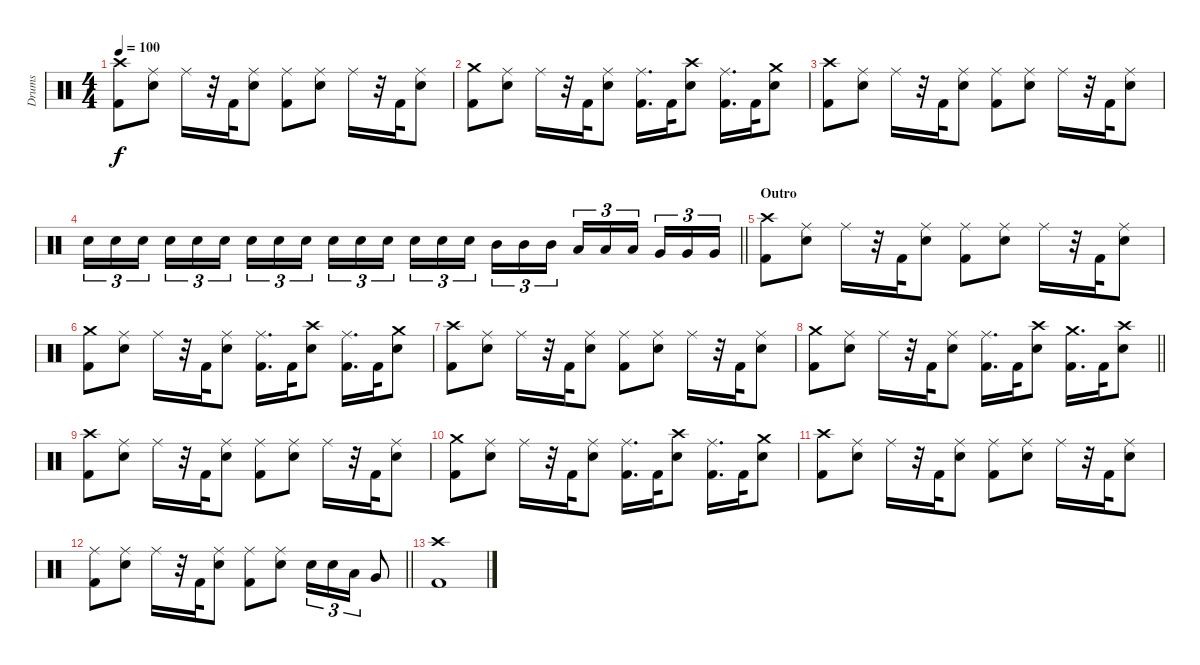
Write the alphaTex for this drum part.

\track ("Drums" "Drums") {instrument percussion}
\staff {score}
\articulation defaults
\ts (4 4)
\tempo 100
\clef neutral
\ks c
("Crash high (hit)" "Kick (hit) 2").8{dy f} ("Ride (middle)" "Snare (hit) 2").8 "Ride (middle)".16 r.32 "Kick (hit) 2".32 ("Ride (middle)" "Snare (hit) 2").8 ("Ride (middle)" "Kick (hit) 2").8 ("Ride (middle)" "Snare (hit) 2").8 "Ride (middle)".16 r.32 "Kick (hit) 2".32 ("Ride (middle)" "Snare (hit) 2").8 |
("Crash medium (hit)" "Kick (hit) 2").8 ("Ride (middle)" "Snare (hit) 2").8 "Ride (middle)".16 r.32 "Kick (hit) 2".32 ("Ride (middle)" "Snare (hit) 2").8 ("Ride (middle)" "Kick (hit) 2").16{d} "Kick (hit) 2".32 ("Crash high (hit)" "Snare (hit) 2").8 ("Ride (middle)" "Kick (hit) 2").16{d} "Kick (hit) 2".32 ("Crash medium (hit)" "Snare (hit) 2").8 |
("Crash high (hit)" "Kick (hit) 2").8 ("Ride (middle)" "Snare (hit) 2").8 "Ride (middle)".16 r.32 "Kick (hit) 2".32 ("Ride (middle)" "Snare (hit) 2").8 ("Ride (middle)" "Kick (hit) 2").8 ("Ride (middle)" "Snare (hit) 2").8 "Ride (middle)".16 r.32 "Kick (hit) 2".32 ("Ride (middle)" "Snare (hit) 2").8 |
\barLineRight lightlight "Snare (hit) 2".16{tu (3 2)} "Snare (hit) 2".16{tu (3 2)} "Snare (hit) 2".16{tu (3 2) beam splitsecondary} "Snare (hit) 2".16{tu (3 2)} "Snare (hit) 2".16{tu (3 2)} "Snare (hit) 2".16{tu (3 2)} "Snare (hit) 2".16{tu (3 2)} "Snare (hit) 2".16{tu (3 2)} "Snare (hit) 2".16{tu (3 2) beam splitsecondary} "Snare (hit) 2".16{tu (3 2)} "Snare (hit) 2".16{tu (3 2)} "Snare (hit) 2".16{tu (3 2)} "Snare (hit) 2".16{tu (3 2)} "Snare (hit) 2".16{tu (3 2)} "Snare (hit) 2".16{tu (3 2) beam splitsecondary} "Mid Tom (hit)".16{tu (3 2)} "Mid Tom (hit)".16{tu (3 2)} "Mid Tom (hit)".16{tu (3 2)} "Low Tom (hit)".16{tu (3 2)} "Low Tom (hit)".16{tu (3 2)} "Low Tom (hit)".16{tu (3 2) beam splitsecondary} "Very Low Tom (hit)".16{tu (3 2)} "Very Low Tom (hit)".16{tu (3 2)} "Very Low Tom (hit)".16{tu (3 2)}
|
\section ("" "Outro")
("Crash high (hit)" "Kick (hit) 2").8 ("Ride (middle)" "Snare (hit) 2").8 "Ride (middle)".16 r.32 "Kick (hit) 2".32 ("Ride (middle)" "Snare (hit) 2").8 ("Ride (middle)" "Kick (hit) 2").8 ("Ride (middle)" "Snare (hit) 2").8 "Ride (middle)".16 r.32 "Kick (hit) 2".32 ("Ride (middle)" "Snare (hit) 2").8 |
("Crash medium (hit)" "Kick (hit) 2").8 ("Ride (middle)" "Snare (hit) 2").8 "Ride (middle)".16 r.32 "Kick (hit) 2".32 ("Ride (middle)" "Snare (hit) 2").8 ("Ride (middle)" "Kick (hit) 2").16{d} "Kick (hit) 2".32 ("Crash high (hit)" "Snare (hit) 2").8 ("Ride (middle)" "Kick (hit) 2").16{d} "Kick (hit) 2".32 ("Crash medium (hit)" "Snare (hit) 2").8 |
("Crash high (hit)" "Kick (hit) 2").8 ("Ride (middle)" "Snare (hit) 2").8 "Ride (middle)".16 r.32 "Kick (hit) 2".32 ("Ride (middle)" "Snare (hit) 2").8 ("Ride (middle)" "Kick (hit) 2").8 ("Ride (middle)" "Snare (hit) 2").8 "Ride (middle)".16 r.32 "Kick (hit) 2".32 ("Ride (middle)" "Snare (hit) 2").8 |
\barLineRight lightlight
("Crash medium (hit)" "Kick (hit) 2").8 ("Ride (middle)" "Snare (hit) 2").8 "Ride (middle)".16 r.32 "Kick (hit) 2".32 ("Ride (middle)" "Snare (hit) 2").8 ("Ride (middle)" "Kick (hit) 2").16{d} "Kick (hit) 2".32 ("Crash high (hit)" "Snare (hit) 2").8 ("Crash medium (hit)" "Kick (hit) 2").16{d} "Kick (hit) 2".32 ("Crash high (hit)" "Snare (hit) 2").8 |
("Crash high (hit)" "Kick (hit) 2").8 ("Ride (middle)" "Snare (hit) 2").8 "Ride (middle)".16 r.32 "Kick (hit) 2".32 ("Ride (middle)" "Snare (hit) 2").8 ("Ride (middle)" "Kick (hit) 2").8 ("Ride (middle)" "Snare (hit) 2").8 "Ride (middle)".16 r.32 "Kick (hit) 2".32 ("Ride (middle)" "Snare (hit) 2").8 |
("Crash medium (hit)" "Kick (hit) 2").8 ("Ride (middle)" "Snare (hit) 2").8 "Ride (middle)".16 r.32 "Kick (hit) 2".32 ("Ride (middle)" "Snare (hit) 2").8 ("Ride (middle)" "Kick (hit) 2").16{d} "Kick (hit) 2".32 ("Crash high (hit)" "Snare (hit) 2").8 ("Ride (middle)" "Kick (hit) 2").16{d} "Kick (hit) 2".32 ("Crash medium (hit)" "Snare (hit) 2").8 |
("Crash high (hit)" "Kick (hit) 2").8 ("Ride (middle)" "Snare (hit) 2").8 "Ride (middle)".16 r.32 "Kick (hit) 2".32 ("Ride (middle)" "Snare (hit) 2").8 ("Ride (middle)" "Kick (hit) 2").8 ("Ride (middle)" "Snare (hit) 2").8 "Ride (middle)".16 r.32 "Kick (hit) 2".32 ("Ride (middle)" "Snare (hit) 2").8 |
\barLineRight lightlight
("Ride (middle)" "Kick (hit) 2").8 ("Ride (middle)" "Snare (hit) 2").8 "Ride (middle)".16 r.32 "Kick (hit) 2".32 ("Ride (middle)" "Snare (hit) 2").8 ("Ride (middle)" "Kick (hit) 2").8 ("Ride (middle)" "Snare (hit) 2").8 "Snare (hit) 2".16{tu (3 2)} "Snare (hit) 2".16{tu (3 2)} "Low Tom (hit)".16{tu (3 2)} "Very Low Tom (hit)".8 |
("Crash high (hit)" "Kick (hit) 2").1
